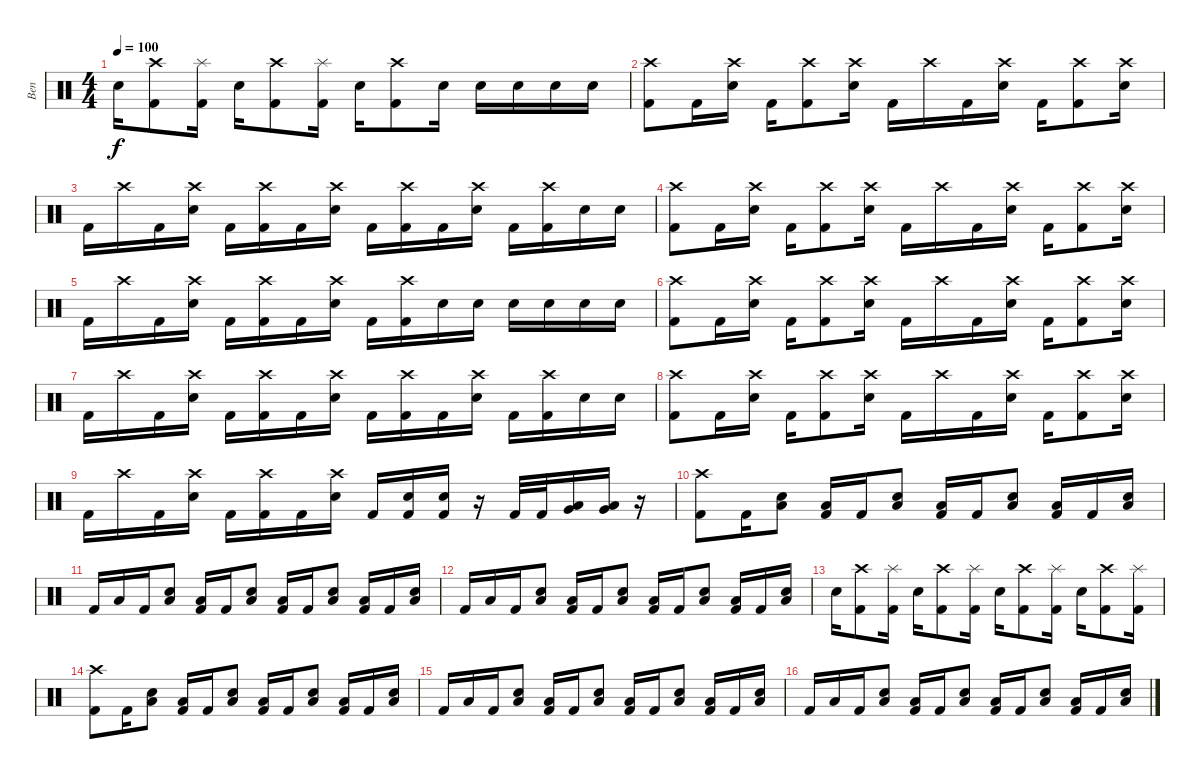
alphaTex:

\track ("Ben" "Ben") {instrument percussion}
\staff {score}
\articulation defaults
\ts (4 4)
\tempo 100
\clef neutral
\ks c "Snare (hit) 2".16{dy f}
("Crash high (hit)" "Kick (hit) 2").8 ("Splash (hit)" "Kick (hit) 2").16 "Snare (hit) 2".16 ("Crash high (hit)" "Kick (hit) 2").8 ("Splash (hit)" "Kick (hit) 2").16 "Snare (hit) 2".16 ("Crash high (hit)" "Kick (hit) 2").8 "Snare (hit) 2".16 "Snare (hit) 2".16 "Snare (hit) 2".16 "Snare (hit) 2".16 "Snare (hit) 2".16 |
("Crash high (hit)" "Kick (hit) 2").8 "Kick (hit) 2".16 ("Crash high (hit)" "Snare (hit) 2").16 "Kick (hit) 2".16 ("Crash high (hit)" "Kick (hit) 2").8 ("Crash high (hit)" "Snare (hit) 2").16 "Kick (hit) 2".16 "Crash high (hit)".16 "Kick (hit) 2".16 ("Crash high (hit)" "Snare (hit) 2").16 "Kick (hit) 2".16 ("Crash high (hit)" "Kick (hit) 2").8 ("Crash high (hit)" "Snare (hit) 2").16 |
"Kick (hit) 2".16 "Crash high (hit)".16 "Kick (hit) 2".16 ("Crash high (hit)" "Snare (hit) 2").16 "Kick (hit) 2".16 ("Crash high (hit)" "Kick (hit) 2").16 "Kick (hit) 2".16 ("Crash high (hit)" "Snare (hit) 2").16 "Kick (hit) 2".16 ("Crash high (hit)" "Kick (hit) 2").16 "Kick (hit) 2".16 ("Crash high (hit)" "Snare (hit) 2").16 "Kick (hit) 2".16 ("Crash high (hit)" "Kick (hit) 2").16 "Snare (hit) 2".16 "Snare (hit) 2".16 |
("Crash high (hit)" "Kick (hit) 2").8 "Kick (hit) 2".16 ("Crash high (hit)" "Snare (hit) 2").16 "Kick (hit) 2".16 ("Crash high (hit)" "Kick (hit) 2").8 ("Crash high (hit)" "Snare (hit) 2").16 "Kick (hit) 2".16 "Crash high (hit)".16 "Kick (hit) 2".16 ("Crash high (hit)" "Snare (hit) 2").16 "Kick (hit) 2".16 ("Crash high (hit)" "Kick (hit) 2").8 ("Crash high (hit)" "Snare (hit) 2").16 |
"Kick (hit) 2".16 "Crash high (hit)".16 "Kick (hit) 2".16 ("Crash high (hit)" "Snare (hit) 2").16 "Kick (hit) 2".16 ("Crash high (hit)" "Kick (hit) 2").16 "Kick (hit) 2".16 ("Crash high (hit)" "Snare (hit) 2").16 "Kick (hit) 2".16 ("Crash high (hit)" "Kick (hit) 2").16 "Snare (hit) 2".16 "Snare (hit) 2".16 "Snare (hit) 2".16 "Snare (hit) 2".16 "Snare (hit) 2".16 "Snare (hit) 2".16 |
("Crash high (hit)" "Kick (hit) 2").8 "Kick (hit) 2".16 ("Crash high (hit)" "Snare (hit) 2").16 "Kick (hit) 2".16 ("Crash high (hit)" "Kick (hit) 2").8 ("Crash high (hit)" "Snare (hit) 2").16 "Kick (hit) 2".16 "Crash high (hit)".16 "Kick (hit) 2".16 ("Crash high (hit)" "Snare (hit) 2").16 "Kick (hit) 2".16 ("Crash high (hit)" "Kick (hit) 2").8 ("Crash high (hit)" "Snare (hit) 2").16 |
"Kick (hit) 2".16 "Crash high (hit)".16 "Kick (hit) 2".16 ("Crash high (hit)" "Snare (hit) 2").16 "Kick (hit) 2".16 ("Crash high (hit)" "Kick (hit) 2").16 "Kick (hit) 2".16 ("Crash high (hit)" "Snare (hit) 2").16 "Kick (hit) 2".16 ("Crash high (hit)" "Kick (hit) 2").16 "Kick (hit) 2".16 ("Crash high (hit)" "Snare (hit) 2").16 "Kick (hit) 2".16 ("Crash high (hit)" "Kick (hit) 2").16 "Snare (hit) 2".16 "Snare (hit) 2".16 |
("Crash high (hit)" "Kick (hit) 2").8 "Kick (hit) 2".16 ("Crash high (hit)" "Snare (hit) 2").16 "Kick (hit) 2".16 ("Crash high (hit)" "Kick (hit) 2").8 ("Crash high (hit)" "Snare (hit) 2").16 "Kick (hit) 2".16 "Crash high (hit)".16 "Kick (hit) 2".16 ("Crash high (hit)" "Snare (hit) 2").16 "Kick (hit) 2".16 ("Crash high (hit)" "Kick (hit) 2").8 ("Crash high (hit)" "Snare (hit) 2").16 |
"Kick (hit) 2".16 "Crash high (hit)".16 "Kick (hit) 2".16 ("Crash high (hit)" "Snare (hit) 2").16 "Kick (hit) 2".16 ("Crash high (hit)" "Kick (hit) 2").16 "Kick (hit) 2".16 ("Crash high (hit)" "Snare (hit) 2").16 "Kick (hit) 2".16 ("Snare (hit) 2" "Kick (hit) 2").16 ("Snare (hit) 2" "Kick (hit) 2").16 r.16 "Kick (hit) 2".32 "Kick (hit) 2".32 ("Very Low Tom (hit)" "Low Floor Tom (hit)").16 ("Very Low Tom (hit)" "Low Floor Tom (hit)").16 r.16 |
("Crash high (hit)" "Kick (hit) 2").8 "Kick (hit) 2".16 ("Low Floor Tom (hit)" "Snare (hit) 2").8 ("Low Floor Tom (hit)" "Kick (hit) 2").16 "Kick (hit) 2".16 ("Low Floor Tom (hit)" "Snare (hit) 2").8 ("Low Floor Tom (hit)" "Kick (hit) 2").16 "Kick (hit) 2".16 ("Low Floor Tom (hit)" "Snare (hit) 2").8 ("Low Floor Tom (hit)" "Kick (hit) 2").16 "Kick (hit) 2".16 ("Low Floor Tom (hit)" "Snare (hit) 2").16 |
"Kick (hit) 2".16 "Low Floor Tom (hit)".16 "Kick (hit) 2".16 ("Low Floor Tom (hit)" "Snare (hit) 2").8 ("Low Floor Tom (hit)" "Kick (hit) 2").16 "Kick (hit) 2".16 ("Low Floor Tom (hit)" "Snare (hit) 2").8 ("Low Floor Tom (hit)" "Kick (hit) 2").16 "Kick (hit) 2".16 ("Low Floor Tom (hit)" "Snare (hit) 2").8 ("Low Floor Tom (hit)" "Kick (hit) 2").16 "Kick (hit) 2".16 ("Low Floor Tom (hit)" "Snare (hit) 2").16 |
"Kick (hit) 2".16 "Low Floor Tom (hit)".16 "Kick (hit) 2".16 ("Low Floor Tom (hit)" "Snare (hit) 2").8 ("Low Floor Tom (hit)" "Kick (hit) 2").16 "Kick (hit) 2".16 ("Low Floor Tom (hit)" "Snare (hit) 2").8 ("Low Floor Tom (hit)" "Kick (hit) 2").16 "Kick (hit) 2".16 ("Low Floor Tom (hit)" "Snare (hit) 2").8 ("Low Floor Tom (hit)" "Kick (hit) 2").16 "Kick (hit) 2".16 ("Low Floor Tom (hit)" "Snare (hit) 2").16 |
"Snare (hit) 2".16 ("Crash high (hit)" "Kick (hit) 2").8 ("Splash (hit)" "Kick (hit) 2").16 "Snare (hit) 2".16 ("Crash high (hit)" "Kick (hit) 2").8 ("Splash (hit)" "Kick (hit) 2").16 "Snare (hit) 2".16 ("Crash high (hit)" "Kick (hit) 2").8 ("Splash (hit)" "Kick (hit) 2").16 "Snare (hit) 2".16 ("Crash high (hit)" "Kick (hit) 2").8 ("Splash (hit)" "Kick (hit) 2").16 |
("Crash high (hit)" "Kick (hit) 2").8 "Kick (hit) 2".16 ("Low Floor Tom (hit)" "Snare (hit) 2").8 ("Low Floor Tom (hit)" "Kick (hit) 2").16 "Kick (hit) 2".16 ("Low Floor Tom (hit)" "Snare (hit) 2").8 ("Low Floor Tom (hit)" "Kick (hit) 2").16 "Kick (hit) 2".16 ("Low Floor Tom (hit)" "Snare (hit) 2").8 ("Low Floor Tom (hit)" "Kick (hit) 2").16 "Kick (hit) 2".16 ("Low Floor Tom (hit)" "Snare (hit) 2").16 |
"Kick (hit) 2".16 "Low Floor Tom (hit)".16 "Kick (hit) 2".16 ("Low Floor Tom (hit)" "Snare (hit) 2").8 ("Low Floor Tom (hit)" "Kick (hit) 2").16 "Kick (hit) 2".16 ("Low Floor Tom (hit)" "Snare (hit) 2").8 ("Low Floor Tom (hit)" "Kick (hit) 2").16 "Kick (hit) 2".16 ("Low Floor Tom (hit)" "Snare (hit) 2").8 ("Low Floor Tom (hit)" "Kick (hit) 2").16 "Kick (hit) 2".16 ("Low Floor Tom (hit)" "Snare (hit) 2").16 |
"Kick (hit) 2".16 "Low Floor Tom (hit)".16 "Kick (hit) 2".16 ("Low Floor Tom (hit)" "Snare (hit) 2").8 ("Low Floor Tom (hit)" "Kick (hit) 2").16 "Kick (hit) 2".16 ("Low Floor Tom (hit)" "Snare (hit) 2").8 ("Low Floor Tom (hit)" "Kick (hit) 2").16 "Kick (hit) 2".16 ("Low Floor Tom (hit)" "Snare (hit) 2").8 ("Low Floor Tom (hit)" "Kick (hit) 2").16 "Kick (hit) 2".16 ("Low Floor Tom (hit)" "Snare (hit) 2").16
